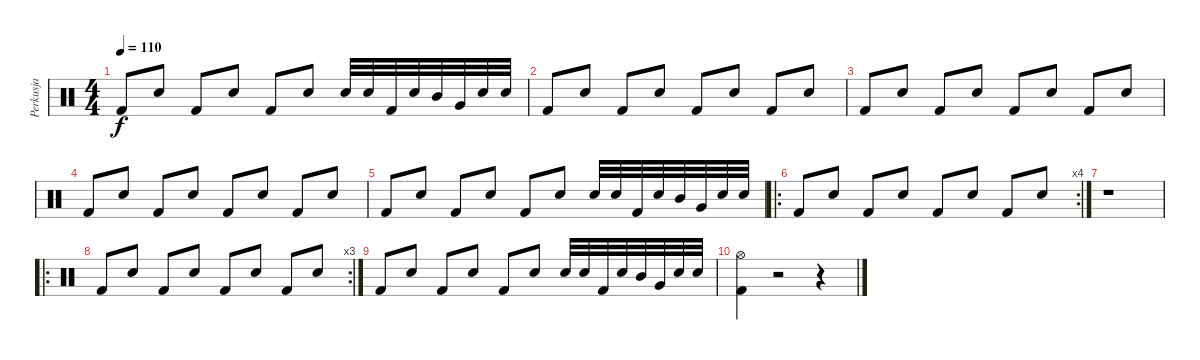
\track ("Perkusja" "Perkusja") {instrument percussion}
\staff {score}
\articulation defaults
\ts (4 4)
\tempo 110
\clef neutral
\ks c "Kick (hit) 2".8{dy f} "Snare (hit) 2".8 "Kick (hit) 2".8 "Snare (hit) 2".8 "Kick (hit) 2".8 "Snare (hit) 2".8 "Snare (hit) 2".32 "Snare (hit) 2".32 "Kick (hit) 2".32 "Snare (hit) 2".32 "Mid Tom (hit)".32 "Very Low Tom (hit)".32 "Snare (hit) 2".32 "Snare (hit) 2".32
|
"Kick (hit) 2".8 "Snare (hit) 2".8 "Kick (hit) 2".8 "Snare (hit) 2".8 "Kick (hit) 2".8 "Snare (hit) 2".8 "Kick (hit) 2".8 "Snare (hit) 2".8 |
"Kick (hit) 2".8 "Snare (hit) 2".8 "Kick (hit) 2".8 "Snare (hit) 2".8 "Kick (hit) 2".8 "Snare (hit) 2".8 "Kick (hit) 2".8 "Snare (hit) 2".8 |
"Kick (hit) 2".8 "Snare (hit) 2".8 "Kick (hit) 2".8 "Snare (hit) 2".8 "Kick (hit) 2".8 "Snare (hit) 2".8 "Kick (hit) 2".8 "Snare (hit) 2".8 |
"Kick (hit) 2".8 "Snare (hit) 2".8 "Kick (hit) 2".8 "Snare (hit) 2".8 "Kick (hit) 2".8 "Snare (hit) 2".8 "Snare (hit) 2".32 "Snare (hit) 2".32 "Kick (hit) 2".32 "Snare (hit) 2".32 "Mid Tom (hit)".32 "Very Low Tom (hit)".32 "Snare (hit) 2".32 "Snare (hit) 2".32 |
\ro
\rc 4 "Kick (hit) 2".8 "Snare (hit) 2".8 "Kick (hit) 2".8 "Snare (hit) 2".8 "Kick (hit) 2".8 "Snare (hit) 2".8 "Kick (hit) 2".8 "Snare (hit) 2".8
|
r.1 |
\ro
\rc 3 "Kick (hit) 2".8 "Snare (hit) 2".8 "Kick (hit) 2".8 "Snare (hit) 2".8 "Kick (hit) 2".8 "Snare (hit) 2".8 "Kick (hit) 2".8 "Snare (hit) 2".8
|
"Kick (hit) 2".8 "Snare (hit) 2".8 "Kick (hit) 2".8 "Snare (hit) 2".8 "Kick (hit) 2".8 "Snare (hit) 2".8 "Snare (hit) 2".32 "Snare (hit) 2".32 "Kick (hit) 2".32 "Snare (hit) 2".32 "Mid Tom (hit)".32 "Very Low Tom (hit)".32 "Snare (hit) 2".32 "Snare (hit) 2".32 |
("Kick (hit) 2" "Hi-Hat (open)").4 r.2 r.4
